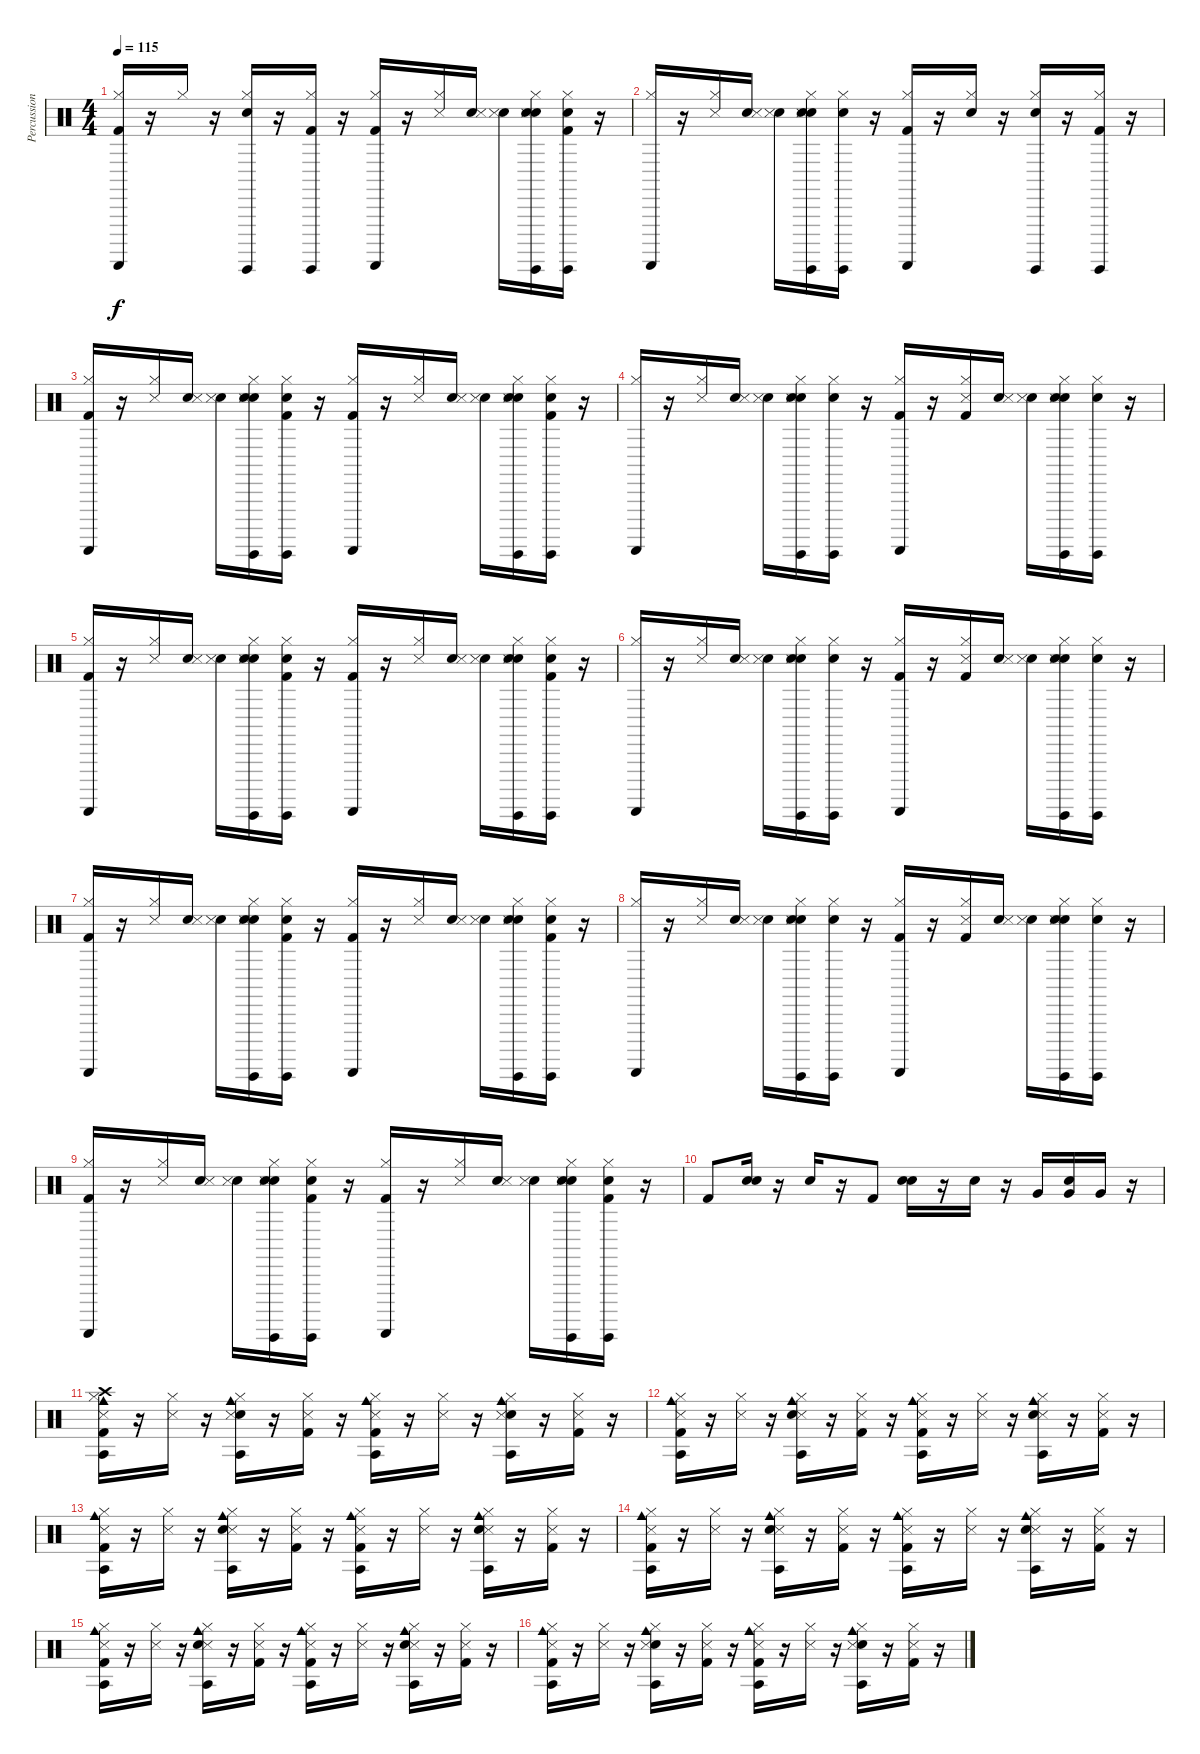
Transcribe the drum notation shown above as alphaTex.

\track ("Percussion" "Percussion") {instrument percussion}
\staff {score}
\articulation defaults
\ts (4 4)
\tempo 115
\clef neutral
\ks c
("Guiro (scrap-return)" "Hi-Hat (closed)" "Kick (hit) 2").16{dy f} r.16 "Hi-Hat (closed)".16 r.16 ("Guiro (hit)" "Hi-Hat (closed)" "Snare (hit) 2").16 r.16 ("Guiro (hit)" "Hi-Hat (closed)" "Kick (hit) 2").16 r.16 ("Guiro (scrap-return)" "Hi-Hat (closed)" "Kick (hit) 2").16 r.16 ("Hi-Hat (closed)" "Snare (side stick) 3").16 ("Snare (hit)" "Snare (side stick) 3").16 ("Snare (hit)" "Snare (side stick) 3").16 ("Snare (hit)" "Guiro (hit)" "Hi-Hat (closed)" "Snare (side stick) 3" "Snare (hit) 2").16 ("Snare (hit)" "Kick (hit) 2" "Guiro (hit)" "Hi-Hat (closed)").16 r.16 |
("Guiro (scrap-return)" "Hi-Hat (closed)").16 r.16 ("Hi-Hat (closed)" "Snare (side stick) 3").16 ("Snare (hit)" "Snare (side stick) 3").16 ("Snare (hit)" "Snare (side stick) 3").16 ("Snare (hit)" "Guiro (hit)" "Hi-Hat (closed)" "Snare (hit) 2" "Snare (side stick) 3").16 ("Snare (hit)" "Guiro (hit)" "Hi-Hat (closed)").16 r.16 ("Hi-Hat (closed)" "Kick (hit) 2" "Guiro (scrap-return)").16 r.16 ("Electric Snare (hit)" "Hi-Hat (closed)").16 r.16 ("Hi-Hat (closed)" "Electric Snare (hit)" "Guiro (hit)").16 r.16 ("Guiro (hit)" "Hi-Hat (closed)" "Kick (hit) 2").16 r.16 |
("Guiro (scrap-return)" "Hi-Hat (closed)" "Kick (hit) 2").16 r.16 ("Hi-Hat (closed)" "Snare (side stick) 3").16 ("Snare (hit)" "Snare (side stick) 3").16 ("Snare (hit)" "Snare (side stick) 3").16 ("Snare (hit)" "Guiro (hit)" "Snare (side stick) 3" "Hi-Hat (closed)" "Snare (hit) 2").16 ("Snare (hit)" "Guiro (hit)" "Hi-Hat (closed)" "Kick (hit) 2").16 r.16 ("Guiro (scrap-return)" "Hi-Hat (closed)" "Kick (hit) 2").16 r.16 ("Snare (side stick) 3" "Hi-Hat (closed)").16 ("Snare (hit)" "Snare (side stick) 3").16 ("Snare (hit)" "Snare (side stick) 3").16 ("Snare (hit)" "Snare (side stick) 3" "Guiro (hit)" "Hi-Hat (closed)" "Snare (hit) 2").16 ("Snare (hit)" "Guiro (hit)" "Hi-Hat (closed)" "Kick (hit) 2").16 r.16 |
("Guiro (scrap-return)" "Hi-Hat (closed)").16 r.16 ("Snare (side stick) 3" "Hi-Hat (closed)").16 ("Snare (hit)" "Snare (side stick) 3").16 ("Snare (hit)" "Snare (side stick) 3").16 ("Snare (hit)" "Guiro (hit)" "Hi-Hat (closed)" "Snare (side stick) 3" "Snare (hit) 2").16 ("Snare (hit)" "Guiro (hit)" "Hi-Hat (closed)").16 r.16 ("Kick (hit) 2" "Guiro (scrap-return)" "Hi-Hat (closed)").16 r.16 ("Snare (side stick) 3" "Hi-Hat (closed)" "Kick (hit) 2").16 ("Snare (hit)" "Snare (side stick) 3").16 ("Snare (hit)" "Snare (side stick) 3").16 ("Snare (hit)" "Guiro (hit)" "Hi-Hat (closed)" "Snare (side stick) 3" "Snare (hit) 2").16 ("Snare (hit)" "Guiro (hit)" "Hi-Hat (closed)").16 r.16 |
("Guiro (scrap-return)" "Hi-Hat (closed)" "Kick (hit) 2").16 r.16 ("Hi-Hat (closed)" "Snare (side stick) 3").16 ("Snare (hit)" "Snare (side stick) 3").16 ("Snare (hit)" "Snare (side stick) 3").16 ("Snare (hit)" "Guiro (hit)" "Snare (side stick) 3" "Hi-Hat (closed)" "Snare (hit) 2").16 ("Snare (hit)" "Guiro (hit)" "Hi-Hat (closed)" "Kick (hit) 2").16 r.16 ("Guiro (scrap-return)" "Hi-Hat (closed)" "Kick (hit) 2").16 r.16 ("Snare (side stick) 3" "Hi-Hat (closed)").16 ("Snare (hit)" "Snare (side stick) 3").16 ("Snare (hit)" "Snare (side stick) 3").16 ("Snare (hit)" "Snare (side stick) 3" "Guiro (hit)" "Hi-Hat (closed)" "Snare (hit) 2").16 ("Snare (hit)" "Guiro (hit)" "Hi-Hat (closed)" "Kick (hit) 2").16 r.16 |
("Guiro (scrap-return)" "Hi-Hat (closed)").16 r.16 ("Snare (side stick) 3" "Hi-Hat (closed)").16 ("Snare (hit)" "Snare (side stick) 3").16 ("Snare (hit)" "Snare (side stick) 3").16 ("Snare (hit)" "Guiro (hit)" "Hi-Hat (closed)" "Snare (side stick) 3" "Snare (hit) 2").16 ("Snare (hit)" "Guiro (hit)" "Hi-Hat (closed)").16 r.16 ("Kick (hit) 2" "Guiro (scrap-return)" "Hi-Hat (closed)").16 r.16 ("Snare (side stick) 3" "Hi-Hat (closed)" "Kick (hit) 2").16 ("Snare (hit)" "Snare (side stick) 3").16 ("Snare (hit)" "Snare (side stick) 3").16 ("Snare (hit)" "Guiro (hit)" "Hi-Hat (closed)" "Snare (side stick) 3" "Snare (hit) 2").16 ("Snare (hit)" "Guiro (hit)" "Hi-Hat (closed)").16 r.16 |
("Guiro (scrap-return)" "Hi-Hat (closed)" "Kick (hit) 2").16 r.16 ("Hi-Hat (closed)" "Snare (side stick) 3").16 ("Snare (hit)" "Snare (side stick) 3").16 ("Snare (hit)" "Snare (side stick) 3").16 ("Snare (hit)" "Guiro (hit)" "Hi-Hat (closed)" "Snare (side stick) 3" "Snare (hit) 2").16 ("Snare (hit)" "Guiro (hit)" "Hi-Hat (closed)" "Kick (hit) 2").16 r.16 ("Guiro (scrap-return)" "Hi-Hat (closed)" "Kick (hit) 2").16 r.16 ("Snare (side stick) 3" "Hi-Hat (closed)").16 ("Snare (hit)" "Snare (side stick) 3").16 ("Snare (hit)" "Snare (side stick) 3").16 ("Snare (hit)" "Snare (hit) 2" "Hi-Hat (closed)" "Guiro (hit)" "Snare (side stick) 3").16 ("Snare (hit)" "Kick (hit) 2" "Guiro (hit)" "Hi-Hat (closed)").16 r.16 |
("Hi-Hat (closed)" "Guiro (scrap-return)").16 r.16 ("Hi-Hat (closed)" "Snare (side stick) 3").16 ("Snare (hit)" "Snare (side stick) 3").16 ("Snare (hit)" "Snare (side stick) 3").16 ("Snare (hit)" "Hi-Hat (closed)" "Guiro (hit)" "Snare (side stick) 3" "Snare (hit) 2").16 ("Snare (hit)" "Hi-Hat (closed)" "Guiro (hit)").16 r.16 ("Kick (hit) 2" "Guiro (scrap-return)" "Hi-Hat (closed)").16 r.16 ("Hi-Hat (closed)" "Snare (side stick) 3" "Kick (hit) 2").16 ("Snare (hit)" "Snare (side stick) 3").16 ("Snare (hit)" "Snare (side stick) 3").16 ("Snare (hit)" "Hi-Hat (closed)" "Guiro (hit)" "Snare (side stick) 3" "Snare (hit) 2").16 ("Snare (hit)" "Hi-Hat (closed)" "Guiro (hit)").16 r.16 |
("Guiro (scrap-return)" "Hi-Hat (closed)" "Kick (hit) 2").16 r.16 ("Hi-Hat (closed)" "Snare (side stick) 3").16 ("Snare (hit)" "Snare (side stick) 3").16 ("Snare (hit)" "Snare (side stick) 3").16 ("Snare (hit)" "Guiro (hit)" "Hi-Hat (closed)" "Snare (side stick) 3" "Snare (hit) 2").16 ("Snare (hit)" "Guiro (hit)" "Hi-Hat (closed)" "Kick (hit) 2").16 r.16 ("Guiro (scrap-return)" "Hi-Hat (closed)" "Kick (hit) 2").16 r.16 ("Snare (side stick) 3" "Hi-Hat (closed)").16 ("Snare (hit)" "Snare (side stick) 3").16 ("Snare (hit)" "Snare (side stick) 3").16 ("Snare (hit)" "Snare (hit) 2" "Hi-Hat (closed)" "Guiro (hit)" "Snare (side stick) 3").16 ("Snare (hit)" "Kick (hit) 2" "Guiro (hit)" "Hi-Hat (closed)").16 r.16 |
"Kick (hit) 2".8 ("Snare (hit)" "Electric Snare (hit)").16 r.16 "Electric Snare (hit)".16 r.16 "Kick (hit) 2".8 ("Snare (hit)" "Electric Snare (hit)").16 r.16 "Electric Snare (hit)".16 r.16 "Very Low Tom (hit)".16 ("Snare (hit)" "Very Low Tom (hit)").16 "Very Low Tom (hit)".16 r.16 |
("Kick (hit) 2" "Hi-Hat (closed)" "Agogo tow (hit)" "Crash high (hit)" "Cowbell medium (hit)" "Snare (side stick) 3").16 r.16 ("Hi-Hat (closed)" "Snare (side stick) 3").16 r.16 ("Snare (hit) 2" "Hi-Hat (closed)" "Agogo tow (hit)" "Cowbell medium (hit)" "Snare (side stick) 3").16 r.16 ("Kick (hit) 2" "Hi-Hat (closed)" "Snare (side stick) 3").16 r.16 ("Kick (hit) 2" "Hi-Hat (closed)" "Agogo tow (hit)" "Cowbell medium (hit)" "Snare (side stick) 3").16 r.16 ("Hi-Hat (closed)" "Snare (side stick) 3").16 r.16 ("Snare (hit) 2" "Hi-Hat (closed)" "Agogo tow (hit)" "Cowbell medium (hit)" "Snare (side stick) 3").16 r.16 ("Kick (hit) 2" "Hi-Hat (closed)" "Snare (side stick) 3").16 r.16 |
("Cowbell medium (hit)" "Snare (side stick) 3" "Hi-Hat (closed)" "Agogo tow (hit)" "Kick (hit) 2").16 r.16 ("Snare (side stick) 3" "Hi-Hat (closed)").16 r.16 ("Cowbell medium (hit)" "Snare (side stick) 3" "Hi-Hat (closed)" "Agogo tow (hit)" "Snare (hit) 2").16 r.16 ("Snare (side stick) 3" "Hi-Hat (closed)" "Kick (hit) 2").16 r.16 ("Cowbell medium (hit)" "Snare (side stick) 3" "Hi-Hat (closed)" "Agogo tow (hit)" "Kick (hit) 2").16 r.16 ("Snare (side stick) 3" "Hi-Hat (closed)").16 r.16 ("Cowbell medium (hit)" "Snare (side stick) 3" "Hi-Hat (closed)" "Agogo tow (hit)" "Snare (hit) 2").16 r.16 ("Snare (side stick) 3" "Hi-Hat (closed)" "Kick (hit) 2").16 r.16 |
("Snare (side stick) 3" "Agogo tow (hit)" "Kick (hit) 2" "Cowbell medium (hit)" "Hi-Hat (closed)").16 r.16 ("Snare (side stick) 3" "Hi-Hat (closed)").16 r.16 ("Snare (side stick) 3" "Agogo tow (hit)" "Snare (hit) 2" "Cowbell medium (hit)" "Hi-Hat (closed)").16 r.16 ("Snare (side stick) 3" "Kick (hit) 2" "Hi-Hat (closed)").16 r.16 ("Snare (side stick) 3" "Agogo tow (hit)" "Kick (hit) 2" "Cowbell medium (hit)" "Hi-Hat (closed)").16 r.16 ("Snare (side stick) 3" "Hi-Hat (closed)").16 r.16 ("Snare (side stick) 3" "Agogo tow (hit)" "Snare (hit) 2" "Cowbell medium (hit)" "Hi-Hat (closed)").16 r.16 ("Snare (side stick) 3" "Kick (hit) 2" "Hi-Hat (closed)").16 r.16 |
("Cowbell medium (hit)" "Agogo tow (hit)" "Snare (side stick) 3" "Kick (hit) 2" "Hi-Hat (closed)").16 r.16 ("Snare (side stick) 3" "Hi-Hat (closed)").16 r.16 ("Cowbell medium (hit)" "Agogo tow (hit)" "Snare (side stick) 3" "Snare (hit) 2" "Hi-Hat (closed)").16 r.16 ("Snare (side stick) 3" "Kick (hit) 2" "Hi-Hat (closed)").16 r.16 ("Cowbell medium (hit)" "Agogo tow (hit)" "Snare (side stick) 3" "Kick (hit) 2" "Hi-Hat (closed)").16 r.16 ("Snare (side stick) 3" "Hi-Hat (closed)").16 r.16 ("Cowbell medium (hit)" "Agogo tow (hit)" "Snare (side stick) 3" "Snare (hit) 2" "Hi-Hat (closed)").16 r.16 ("Snare (side stick) 3" "Kick (hit) 2" "Hi-Hat (closed)").16 r.16 |
("Hi-Hat (closed)" "Cowbell medium (hit)" "Snare (side stick) 3" "Agogo tow (hit)" "Kick (hit) 2").16 r.16 ("Hi-Hat (closed)" "Snare (side stick) 3").16 r.16 ("Hi-Hat (closed)" "Cowbell medium (hit)" "Snare (side stick) 3" "Agogo tow (hit)" "Snare (hit) 2").16 r.16 ("Hi-Hat (closed)" "Snare (side stick) 3" "Kick (hit) 2").16 r.16 ("Hi-Hat (closed)" "Cowbell medium (hit)" "Snare (side stick) 3" "Agogo tow (hit)" "Kick (hit) 2").16 r.16 ("Hi-Hat (closed)" "Snare (side stick) 3").16 r.16 ("Hi-Hat (closed)" "Cowbell medium (hit)" "Snare (side stick) 3" "Agogo tow (hit)" "Snare (hit) 2").16 r.16 ("Hi-Hat (closed)" "Snare (side stick) 3" "Kick (hit) 2").16 r.16 |
("Kick (hit) 2" "Agogo tow (hit)" "Cowbell medium (hit)" "Snare (side stick) 3" "Hi-Hat (closed)").16 r.16 ("Snare (side stick) 3" "Hi-Hat (closed)").16 r.16 ("Snare (hit) 2" "Agogo tow (hit)" "Cowbell medium (hit)" "Snare (side stick) 3" "Hi-Hat (closed)").16 r.16 ("Kick (hit) 2" "Snare (side stick) 3" "Hi-Hat (closed)").16 r.16 ("Kick (hit) 2" "Agogo tow (hit)" "Cowbell medium (hit)" "Snare (side stick) 3" "Hi-Hat (closed)").16 r.16 ("Snare (side stick) 3" "Hi-Hat (closed)").16 r.16 ("Snare (hit) 2" "Agogo tow (hit)" "Cowbell medium (hit)" "Snare (side stick) 3" "Hi-Hat (closed)").16 r.16 ("Kick (hit) 2" "Snare (side stick) 3" "Hi-Hat (closed)").16 r.16
